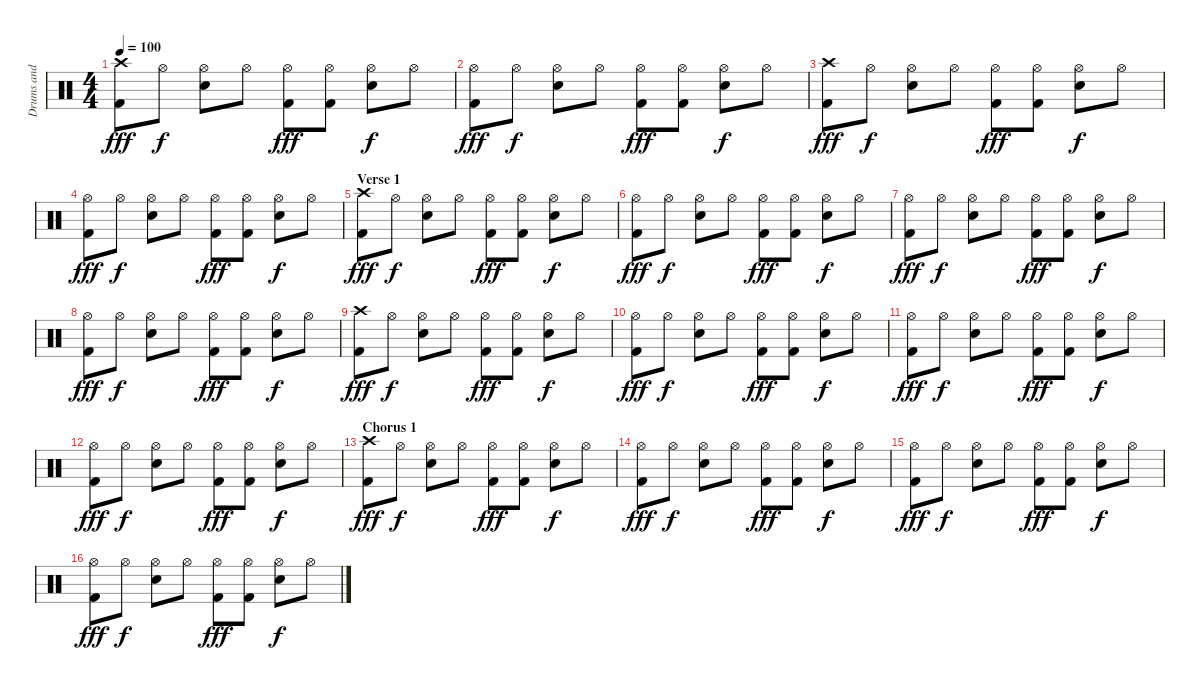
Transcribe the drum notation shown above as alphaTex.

\track ("Drums and Percussion" "Drums and ") {instrument percussion}
\staff {score}
\articulation defaults
\ts (4 4)
\tempo 100
\clef neutral
\ks c
("Crash high (hit)" "Kick (hit) 2").8{dy fff} "Hi-Hat (open)".8{dy f} ("Hi-Hat (open)" "Snare (hit) 2").8 "Hi-Hat (open)".8 ("Hi-Hat (open)" "Kick (hit) 2").8{dy fff} ("Hi-Hat (open)" "Kick (hit) 2").8 ("Hi-Hat (open)" "Snare (hit) 2").8{dy f} "Hi-Hat (open)".8 |
("Hi-Hat (open)" "Kick (hit) 2").8{dy fff} "Hi-Hat (open)".8{dy f} ("Hi-Hat (open)" "Snare (hit) 2").8 "Hi-Hat (open)".8 ("Hi-Hat (open)" "Kick (hit) 2").8{dy fff} ("Hi-Hat (open)" "Kick (hit) 2").8 ("Hi-Hat (open)" "Snare (hit) 2").8{dy f} "Hi-Hat (open)".8 |
("Crash high (hit)" "Kick (hit) 2").8{dy fff} "Hi-Hat (open)".8{dy f} ("Hi-Hat (open)" "Snare (hit) 2").8 "Hi-Hat (open)".8 ("Hi-Hat (open)" "Kick (hit) 2").8{dy fff} ("Hi-Hat (open)" "Kick (hit) 2").8 ("Hi-Hat (open)" "Snare (hit) 2").8{dy f} "Hi-Hat (open)".8 |
("Hi-Hat (open)" "Kick (hit) 2").8{dy fff} "Hi-Hat (open)".8{dy f} ("Hi-Hat (open)" "Snare (hit) 2").8 "Hi-Hat (open)".8 ("Hi-Hat (open)" "Kick (hit) 2").8{dy fff} ("Hi-Hat (open)" "Kick (hit) 2").8 ("Hi-Hat (open)" "Snare (hit) 2").8{dy f} "Hi-Hat (open)".8 |
\section ("" "Verse 1")
("Crash high (hit)" "Kick (hit) 2").8{dy fff} "Hi-Hat (open)".8{dy f} ("Hi-Hat (open)" "Snare (hit) 2").8 "Hi-Hat (open)".8 ("Hi-Hat (open)" "Kick (hit) 2").8{dy fff} ("Hi-Hat (open)" "Kick (hit) 2").8 ("Hi-Hat (open)" "Snare (hit) 2").8{dy f} "Hi-Hat (open)".8 |
("Hi-Hat (open)" "Kick (hit) 2").8{dy fff} "Hi-Hat (open)".8{dy f} ("Hi-Hat (open)" "Snare (hit) 2").8 "Hi-Hat (open)".8 ("Hi-Hat (open)" "Kick (hit) 2").8{dy fff} ("Hi-Hat (open)" "Kick (hit) 2").8 ("Hi-Hat (open)" "Snare (hit) 2").8{dy f} "Hi-Hat (open)".8 |
("Hi-Hat (open)" "Kick (hit) 2").8{dy fff} "Hi-Hat (open)".8{dy f} ("Hi-Hat (open)" "Snare (hit) 2").8 "Hi-Hat (open)".8 ("Hi-Hat (open)" "Kick (hit) 2").8{dy fff} ("Hi-Hat (open)" "Kick (hit) 2").8 ("Hi-Hat (open)" "Snare (hit) 2").8{dy f} "Hi-Hat (open)".8 |
("Hi-Hat (open)" "Kick (hit) 2").8{dy fff} "Hi-Hat (open)".8{dy f} ("Hi-Hat (open)" "Snare (hit) 2").8 "Hi-Hat (open)".8 ("Hi-Hat (open)" "Kick (hit) 2").8{dy fff} ("Hi-Hat (open)" "Kick (hit) 2").8 ("Hi-Hat (open)" "Snare (hit) 2").8{dy f} "Hi-Hat (open)".8 |
("Crash high (hit)" "Kick (hit) 2").8{dy fff} "Hi-Hat (open)".8{dy f} ("Hi-Hat (open)" "Snare (hit) 2").8 "Hi-Hat (open)".8 ("Hi-Hat (open)" "Kick (hit) 2").8{dy fff} ("Hi-Hat (open)" "Kick (hit) 2").8 ("Hi-Hat (open)" "Snare (hit) 2").8{dy f} "Hi-Hat (open)".8 |
("Hi-Hat (open)" "Kick (hit) 2").8{dy fff} "Hi-Hat (open)".8{dy f} ("Hi-Hat (open)" "Snare (hit) 2").8 "Hi-Hat (open)".8 ("Hi-Hat (open)" "Kick (hit) 2").8{dy fff} ("Hi-Hat (open)" "Kick (hit) 2").8 ("Hi-Hat (open)" "Snare (hit) 2").8{dy f} "Hi-Hat (open)".8 |
("Hi-Hat (open)" "Kick (hit) 2").8{dy fff} "Hi-Hat (open)".8{dy f} ("Hi-Hat (open)" "Snare (hit) 2").8 "Hi-Hat (open)".8 ("Hi-Hat (open)" "Kick (hit) 2").8{dy fff} ("Hi-Hat (open)" "Kick (hit) 2").8 ("Hi-Hat (open)" "Snare (hit) 2").8{dy f} "Hi-Hat (open)".8 |
("Hi-Hat (open)" "Kick (hit) 2").8{dy fff} "Hi-Hat (open)".8{dy f} ("Hi-Hat (open)" "Snare (hit) 2").8 "Hi-Hat (open)".8 ("Hi-Hat (open)" "Kick (hit) 2").8{dy fff} ("Hi-Hat (open)" "Kick (hit) 2").8 ("Hi-Hat (open)" "Snare (hit) 2").8{dy f} "Hi-Hat (open)".8 |
\section ("" "Chorus 1")
("Crash high (hit)" "Kick (hit) 2").8{dy fff} "Hi-Hat (open)".8{dy f} ("Hi-Hat (open)" "Snare (hit) 2").8 "Hi-Hat (open)".8 ("Hi-Hat (open)" "Kick (hit) 2").8{dy fff} ("Hi-Hat (open)" "Kick (hit) 2").8 ("Hi-Hat (open)" "Snare (hit) 2").8{dy f} "Hi-Hat (open)".8 |
("Hi-Hat (open)" "Kick (hit) 2").8{dy fff} "Hi-Hat (open)".8{dy f} ("Hi-Hat (open)" "Snare (hit) 2").8 "Hi-Hat (open)".8 ("Hi-Hat (open)" "Kick (hit) 2").8{dy fff} ("Hi-Hat (open)" "Kick (hit) 2").8 ("Hi-Hat (open)" "Snare (hit) 2").8{dy f} "Hi-Hat (open)".8 |
("Hi-Hat (open)" "Kick (hit) 2").8{dy fff} "Hi-Hat (open)".8{dy f} ("Hi-Hat (open)" "Snare (hit) 2").8 "Hi-Hat (open)".8 ("Hi-Hat (open)" "Kick (hit) 2").8{dy fff} ("Hi-Hat (open)" "Kick (hit) 2").8 ("Hi-Hat (open)" "Snare (hit) 2").8{dy f} "Hi-Hat (open)".8 |
("Hi-Hat (open)" "Kick (hit) 2").8{dy fff} "Hi-Hat (open)".8{dy f} ("Hi-Hat (open)" "Snare (hit) 2").8 "Hi-Hat (open)".8 ("Hi-Hat (open)" "Kick (hit) 2").8{dy fff} ("Hi-Hat (open)" "Kick (hit) 2").8 ("Hi-Hat (open)" "Snare (hit) 2").8{dy f} "Hi-Hat (open)".8
